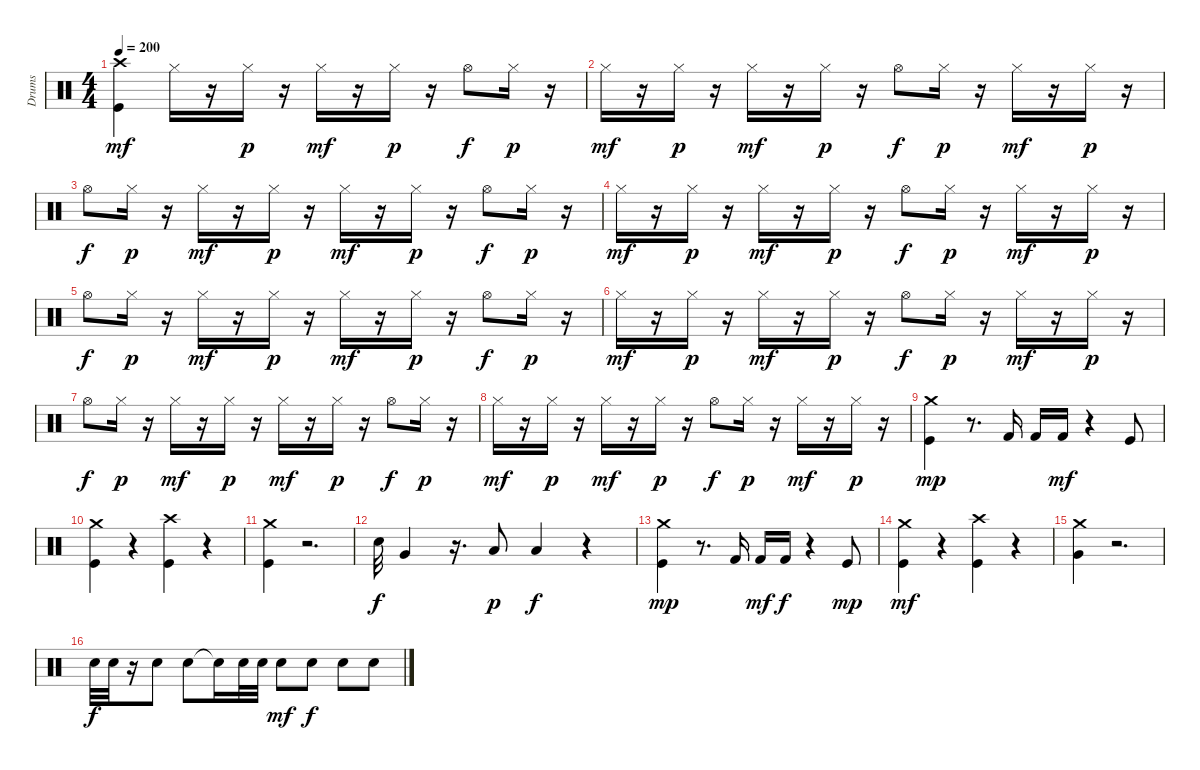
\track ("Drums" "Drums") {instrument percussion}
\staff {score}
\articulation defaults
\ts (4 4)
\tempo 200
\clef neutral
\ks c
("Crash high (hit)" "Kick (hit)").4{dy mf} "Hi-Hat (closed)".16 r.16 "Hi-Hat (closed)".16{dy p} r.16 "Hi-Hat (closed)".16{dy mf} r.16 "Hi-Hat (closed)".16{dy p} r.16 "Hi-Hat (open)".8{dy f} "Hi-Hat (closed)".16{dy p} r.16 |
"Hi-Hat (closed)".16{dy mf} r.16 "Hi-Hat (closed)".16{dy p} r.16 "Hi-Hat (closed)".16{dy mf} r.16 "Hi-Hat (closed)".16{dy p} r.16 "Hi-Hat (open)".8{dy f} "Hi-Hat (closed)".16{dy p} r.16 "Hi-Hat (closed)".16{dy mf} r.16 "Hi-Hat (closed)".16{dy p} r.16 |
"Hi-Hat (open)".8{dy f} "Hi-Hat (closed)".16{dy p} r.16 "Hi-Hat (closed)".16{dy mf} r.16 "Hi-Hat (closed)".16{dy p} r.16 "Hi-Hat (closed)".16{dy mf} r.16 "Hi-Hat (closed)".16{dy p} r.16 "Hi-Hat (open)".8{dy f} "Hi-Hat (closed)".16{dy p} r.16 |
"Hi-Hat (closed)".16{dy mf} r.16 "Hi-Hat (closed)".16{dy p} r.16 "Hi-Hat (closed)".16{dy mf} r.16 "Hi-Hat (closed)".16{dy p} r.16 "Hi-Hat (open)".8{dy f} "Hi-Hat (closed)".16{dy p} r.16 "Hi-Hat (closed)".16{dy mf} r.16 "Hi-Hat (closed)".16{dy p} r.16 |
"Hi-Hat (open)".8{dy f} "Hi-Hat (closed)".16{dy p} r.16 "Hi-Hat (closed)".16{dy mf} r.16 "Hi-Hat (closed)".16{dy p} r.16 "Hi-Hat (closed)".16{dy mf} r.16 "Hi-Hat (closed)".16{dy p} r.16 "Hi-Hat (open)".8{dy f} "Hi-Hat (closed)".16{dy p} r.16 |
"Hi-Hat (closed)".16{dy mf} r.16 "Hi-Hat (closed)".16{dy p} r.16 "Hi-Hat (closed)".16{dy mf} r.16 "Hi-Hat (closed)".16{dy p} r.16 "Hi-Hat (open)".8{dy f} "Hi-Hat (closed)".16{dy p} r.16 "Hi-Hat (closed)".16{dy mf} r.16 "Hi-Hat (closed)".16{dy p} r.16 |
"Hi-Hat (open)".8{dy f} "Hi-Hat (closed)".16{dy p} r.16 "Hi-Hat (closed)".16{dy mf} r.16 "Hi-Hat (closed)".16{dy p} r.16 "Hi-Hat (closed)".16{dy mf} r.16 "Hi-Hat (closed)".16{dy p} r.16 "Hi-Hat (open)".8{dy f} "Hi-Hat (closed)".16{dy p} r.16 |
"Hi-Hat (closed)".16{dy mf} r.16 "Hi-Hat (closed)".16{dy p} r.16 "Hi-Hat (closed)".16{dy mf} r.16 "Hi-Hat (closed)".16{dy p} r.16 "Hi-Hat (open)".8{dy f} "Hi-Hat (closed)".16{dy p} r.16 "Hi-Hat (closed)".16{dy mf} r.16 "Hi-Hat (closed)".16{dy p} r.16 |
("Crash medium (hit)" "Kick (hit)").4{dy mp} r.8{d} "Kick (hit) 2".16 "Kick (hit) 2".16 "Kick (hit) 2".16{dy mf} r.4 "Kick (hit)".8 |
("Kick (hit)" "Crash medium (hit)").4 r.4 ("Crash high (hit)" "Kick (hit)").4 r.4 |
("Crash medium (hit)" "Kick (hit)").4 r.2{d} |
"Snare (hit) 2".32{dy f} "Very Low Tom (hit)".4 r.16{d} "Low Tom (hit)".8{dy p} "Low Floor Tom (hit)".4{dy f} r.4 |
("Crash medium (hit)" "Kick (hit)").4{dy mp} r.8{d} "Kick (hit) 2".16 "Kick (hit) 2".16{dy mf} "Kick (hit) 2".16{dy f} r.4 "Kick (hit)".8{dy mp} |
("Kick (hit)" "Crash medium (hit)").4{dy mf} r.4 ("Crash high (hit)" "Kick (hit)").4 r.4 |
("Crash medium (hit)" "Very Low Tom (hit)").4 r.2{d} |
"Electric Snare (hit)".32{dy f} "Electric Snare (hit)".32 r.16 "Electric Snare (hit)".8 "Electric Snare (hit)".8 "Snare (hit)"{t}.16 "Electric Snare (hit)".32 "Electric Snare (hit)".32 "Electric Snare (hit)".8{dy mf} "Electric Snare (hit)".8{dy f} "Electric Snare (hit)".8 "Electric Snare (hit)".8
